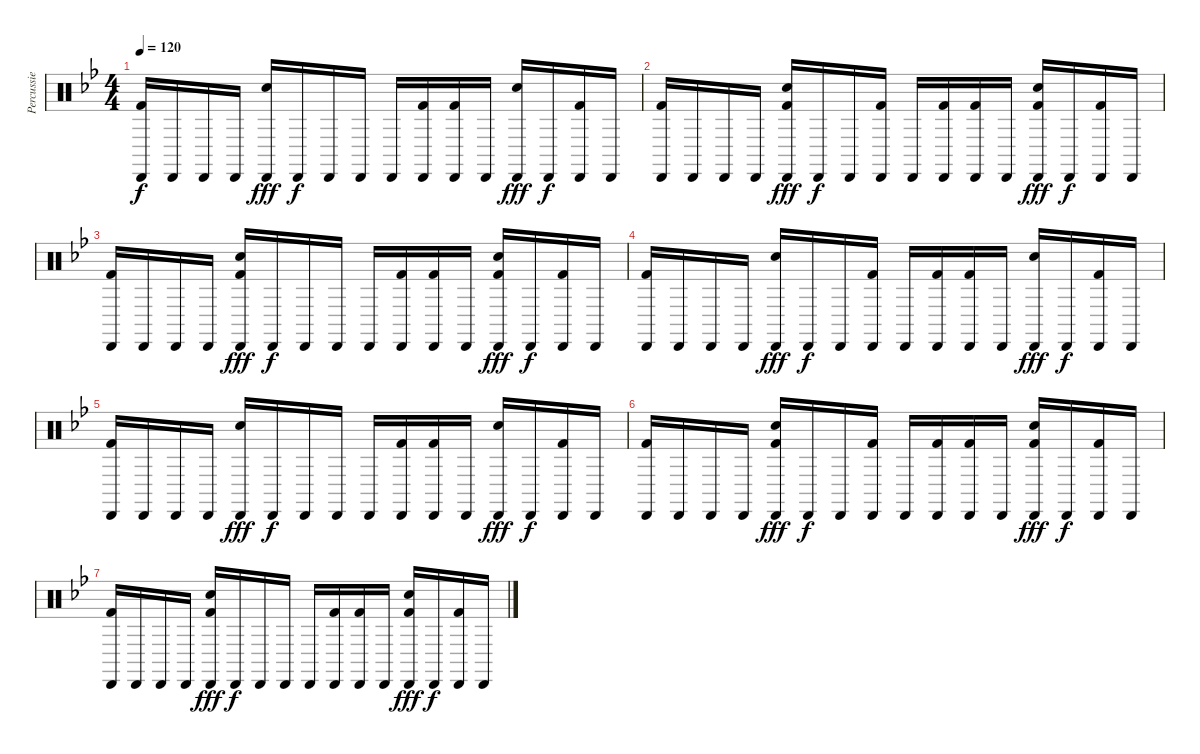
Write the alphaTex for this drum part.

\track ("Percussie" "Percussie") {instrument percussion}
\staff {score}
\articulation defaults
\ts (4 4)
\tempo 120
\clef neutral
\ks bb
("Cabasa (hit)" "Kick (hit) 2").16{dy f} "Cabasa (hit)".16 "Cabasa (hit)".16 "Cabasa (hit)".16 ("Cabasa (hit)" "Snare (hit) 2").16{dy fff} "Cabasa (hit)".16{dy f} "Cabasa (hit)".16 "Cabasa (hit)".16 "Cabasa (hit)".16 ("Cabasa (hit)" "Kick (hit) 2").16 ("Cabasa (hit)" "Kick (hit) 2").16 "Cabasa (hit)".16 ("Cabasa (hit)" "Snare (hit) 2").16{dy fff} "Cabasa (hit)".16{dy f} ("Cabasa (hit)" "Kick (hit) 2").16 "Cabasa (hit)".16 |
("Cabasa (hit)" "Kick (hit) 2").16 "Cabasa (hit)".16 "Cabasa (hit)".16 "Cabasa (hit)".16 ("Cabasa (hit)" "Kick (hit) 2" "Snare (hit) 2").16{dy fff} "Cabasa (hit)".16{dy f} "Cabasa (hit)".16 ("Cabasa (hit)" "Kick (hit) 2").16 "Cabasa (hit)".16 ("Cabasa (hit)" "Kick (hit) 2").16 ("Cabasa (hit)" "Kick (hit) 2").16 "Cabasa (hit)".16 ("Cabasa (hit)" "Kick (hit) 2" "Snare (hit) 2").16{dy fff} "Cabasa (hit)".16{dy f} ("Cabasa (hit)" "Kick (hit) 2").16 "Cabasa (hit)".16 |
("Cabasa (hit)" "Kick (hit) 2").16 "Cabasa (hit)".16 "Cabasa (hit)".16 "Cabasa (hit)".16 ("Cabasa (hit)" "Kick (hit) 2" "Snare (hit) 2").16{dy fff} "Cabasa (hit)".16{dy f} "Cabasa (hit)".16 "Cabasa (hit)".16 "Cabasa (hit)".16 ("Cabasa (hit)" "Kick (hit) 2").16 ("Cabasa (hit)" "Kick (hit) 2").16 "Cabasa (hit)".16 ("Cabasa (hit)" "Kick (hit) 2" "Snare (hit) 2").16{dy fff} "Cabasa (hit)".16{dy f} ("Cabasa (hit)" "Kick (hit) 2").16 "Cabasa (hit)".16 |
("Cabasa (hit)" "Kick (hit) 2").16 "Cabasa (hit)".16 "Cabasa (hit)".16 "Cabasa (hit)".16 ("Cabasa (hit)" "Snare (hit) 2").16{dy fff} "Cabasa (hit)".16{dy f} "Cabasa (hit)".16 ("Cabasa (hit)" "Kick (hit) 2").16 "Cabasa (hit)".16 ("Cabasa (hit)" "Kick (hit) 2").16 ("Cabasa (hit)" "Kick (hit) 2").16 "Cabasa (hit)".16 ("Cabasa (hit)" "Snare (hit) 2").16{dy fff} "Cabasa (hit)".16{dy f} ("Cabasa (hit)" "Kick (hit) 2").16 "Cabasa (hit)".16 |
("Cabasa (hit)" "Kick (hit) 2").16 "Cabasa (hit)".16 "Cabasa (hit)".16 "Cabasa (hit)".16 ("Cabasa (hit)" "Snare (hit) 2").16{dy fff} "Cabasa (hit)".16{dy f} "Cabasa (hit)".16 "Cabasa (hit)".16 "Cabasa (hit)".16 ("Cabasa (hit)" "Kick (hit) 2").16 ("Cabasa (hit)" "Kick (hit) 2").16 "Cabasa (hit)".16 ("Cabasa (hit)" "Snare (hit) 2").16{dy fff} "Cabasa (hit)".16{dy f} ("Cabasa (hit)" "Kick (hit) 2").16 "Cabasa (hit)".16 |
("Cabasa (hit)" "Kick (hit) 2").16 "Cabasa (hit)".16 "Cabasa (hit)".16 "Cabasa (hit)".16 ("Cabasa (hit)" "Kick (hit) 2" "Snare (hit) 2").16{dy fff} "Cabasa (hit)".16{dy f} "Cabasa (hit)".16 ("Cabasa (hit)" "Kick (hit) 2").16 "Cabasa (hit)".16 ("Cabasa (hit)" "Kick (hit) 2").16 ("Cabasa (hit)" "Kick (hit) 2").16 "Cabasa (hit)".16 ("Cabasa (hit)" "Kick (hit) 2" "Snare (hit) 2").16{dy fff} "Cabasa (hit)".16{dy f} ("Cabasa (hit)" "Kick (hit) 2").16 "Cabasa (hit)".16 |
("Cabasa (hit)" "Kick (hit) 2").16 "Cabasa (hit)".16 "Cabasa (hit)".16 "Cabasa (hit)".16 ("Cabasa (hit)" "Kick (hit) 2" "Snare (hit) 2").16{dy fff} "Cabasa (hit)".16{dy f} "Cabasa (hit)".16 "Cabasa (hit)".16 "Cabasa (hit)".16 ("Cabasa (hit)" "Kick (hit) 2").16 ("Cabasa (hit)" "Kick (hit) 2").16 "Cabasa (hit)".16 ("Cabasa (hit)" "Kick (hit) 2" "Snare (hit) 2").16{dy fff} "Cabasa (hit)".16{dy f} ("Cabasa (hit)" "Kick (hit) 2").16 "Cabasa (hit)".16
